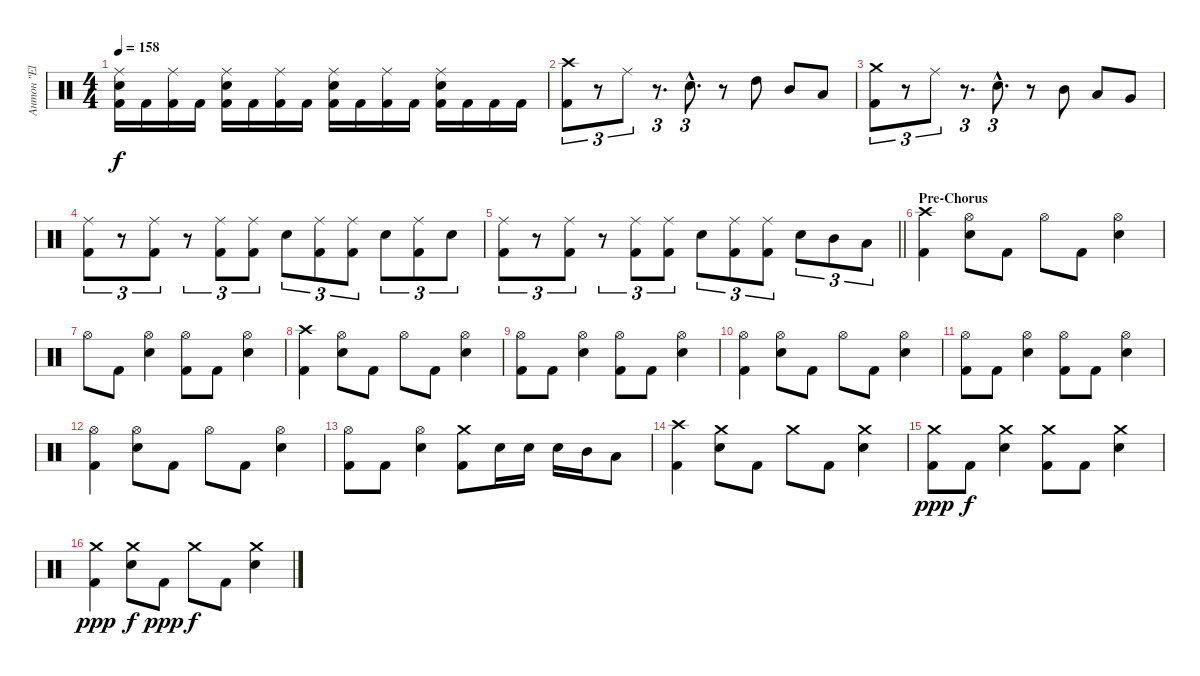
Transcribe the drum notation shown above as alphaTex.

\track ("Антон \"El Bastardo\" Смольянин" "Антон \"El ") {instrument percussion}
\staff {score}
\articulation defaults
\ts (4 4)
\tempo 158
\clef neutral
\ks c
("Ride (middle)" "Electric Snare (hit)" "Kick (hit) 2").16{dy f} "Kick (hit) 2".16 ("Ride (middle)" "Kick (hit) 2").16 "Kick (hit) 2".16 ("Ride (middle)" "Electric Snare (hit)" "Kick (hit) 2").16 "Kick (hit) 2".16 ("Ride (middle)" "Kick (hit) 2").16 "Kick (hit) 2".16 ("Ride (middle)" "Electric Snare (hit)" "Kick (hit) 2").16 "Kick (hit) 2".16 ("Ride (middle)" "Kick (hit) 2").16 "Kick (hit) 2".16 ("Ride (middle)" "Electric Snare (hit)" "Kick (hit) 2").16 "Kick (hit) 2".16 "Kick (hit) 2".16 "Kick (hit) 2".16 |
("Crash high (hit)" "Kick (hit) 2").8{tu (3 2)} r.8{tu (3 2)} "Ride (middle)".8{tu (3 2)} r.8{d tu (3 2)} "Electric Snare (hit)"{hac}.8{d tu (3 2)} r.8 "High Tom (hit)".8 "Mid Tom (hit)".8 "Low Tom (hit)".8 |
("Crash medium (hit)" "Kick (hit) 2").8{tu (3 2)} r.8{tu (3 2)} "Ride (middle)".8{tu (3 2)} r.8{d tu (3 2)} "Electric Snare (hit)"{hac}.8{d tu (3 2)} r.8 "Mid Tom (hit)".8 "Low Tom (hit)".8 "Very Low Tom (hit)".8 |
("Ride (middle)" "Kick (hit) 2").8{tu (3 2)} r.8{tu (3 2)} ("Ride (middle)" "Kick (hit) 2").8{tu (3 2)} r.8{tu (3 2)} ("Ride (middle)" "Kick (hit) 2").8{tu (3 2)} ("Ride (middle)" "Kick (hit) 2").8{tu (3 2)} "Electric Snare (hit)".8{tu (3 2)} ("Ride (middle)" "Kick (hit) 2").8{tu (3 2)} ("Ride (middle)" "Kick (hit) 2").8{tu (3 2)} "Electric Snare (hit)".8{tu (3 2)} ("Ride (middle)" "Kick (hit) 2").8{tu (3 2)} "Electric Snare (hit)".8{tu (3 2)} |
\barLineRight lightlight
("Ride (middle)" "Kick (hit) 2").8{tu (3 2)} r.8{tu (3 2)} ("Ride (middle)" "Kick (hit) 2").8{tu (3 2)} r.8{tu (3 2)} ("Ride (middle)" "Kick (hit) 2").8{tu (3 2)} ("Ride (middle)" "Kick (hit) 2").8{tu (3 2)} "Electric Snare (hit)".8{tu (3 2)} ("Ride (middle)" "Kick (hit) 2").8{tu (3 2)} ("Ride (middle)" "Kick (hit) 2").8{tu (3 2)} "Electric Snare (hit)".8{tu (3 2)} "Mid Tom (hit)".8{tu (3 2)} "Low Tom (hit)".8{tu (3 2)} |
\section ("" "Pre-Chorus")
("Crash high (hit)" "Kick (hit) 2").4 ("Hi-Hat (open)" "Electric Snare (hit)").8 "Kick (hit) 2".8 "Hi-Hat (open)".8 "Kick (hit) 2".8 ("Hi-Hat (open)" "Electric Snare (hit)").4 |
"Hi-Hat (open)".8 "Kick (hit) 2".8 ("Hi-Hat (open)" "Electric Snare (hit)").4 ("Hi-Hat (open)" "Kick (hit) 2").8 "Kick (hit) 2".8 ("Hi-Hat (open)" "Electric Snare (hit)").4 |
("Crash high (hit)" "Kick (hit) 2").4 ("Hi-Hat (open)" "Electric Snare (hit)").8 "Kick (hit) 2".8 "Hi-Hat (open)".8 "Kick (hit) 2".8 ("Hi-Hat (open)" "Electric Snare (hit)").4 |
("Hi-Hat (open)" "Kick (hit) 2").8 "Kick (hit) 2".8 ("Hi-Hat (open)" "Electric Snare (hit)").4 ("Hi-Hat (open)" "Kick (hit) 2").8 "Kick (hit) 2".8 ("Hi-Hat (open)" "Electric Snare (hit)").4 |
("Hi-Hat (open)" "Kick (hit) 2").4 ("Hi-Hat (open)" "Electric Snare (hit)").8 "Kick (hit) 2".8 "Hi-Hat (open)".8 "Kick (hit) 2".8 ("Hi-Hat (open)" "Electric Snare (hit)").4 |
("Hi-Hat (open)" "Kick (hit) 2").8 "Kick (hit) 2".8 ("Hi-Hat (open)" "Electric Snare (hit)").4 ("Hi-Hat (open)" "Kick (hit) 2").8 "Kick (hit) 2".8 ("Hi-Hat (open)" "Electric Snare (hit)").4 |
("Hi-Hat (open)" "Kick (hit) 2").4 ("Hi-Hat (open)" "Electric Snare (hit)").8 "Kick (hit) 2".8 "Hi-Hat (open)".8 "Kick (hit) 2".8 ("Hi-Hat (open)" "Electric Snare (hit)").4 |
("Hi-Hat (open)" "Kick (hit) 2").8 "Kick (hit) 2".8 ("Hi-Hat (open)" "Electric Snare (hit)").4 ("Crash medium (hit)" "Kick (hit) 2").8 "Electric Snare (hit)".16 "Electric Snare (hit)".16 "Electric Snare (hit)".16 "Mid Tom (hit)".16 "Low Tom (hit)".8 |
("Crash high (hit)" "Kick (hit) 2").4 ("Crash medium (hit)" "Electric Snare (hit)").8 "Kick (hit) 2".8 "Crash medium (hit)".8 "Kick (hit) 2".8 ("Crash medium (hit)" "Electric Snare (hit)").4 |
("Crash medium (hit)" "Kick (hit) 2").8{dy ppp} "Kick (hit) 2".8{dy f} ("Crash medium (hit)" "Electric Snare (hit)").4 ("Crash medium (hit)" "Kick (hit) 2").8 "Kick (hit) 2".8 ("Crash medium (hit)" "Electric Snare (hit)").4 |
("Crash medium (hit)" "Kick (hit) 2").4{dy ppp} ("Crash medium (hit)" "Electric Snare (hit)").8{dy f} "Kick (hit) 2".8{dy ppp} "Crash medium (hit)".8{dy f} "Kick (hit) 2".8 ("Crash medium (hit)" "Electric Snare (hit)").4
